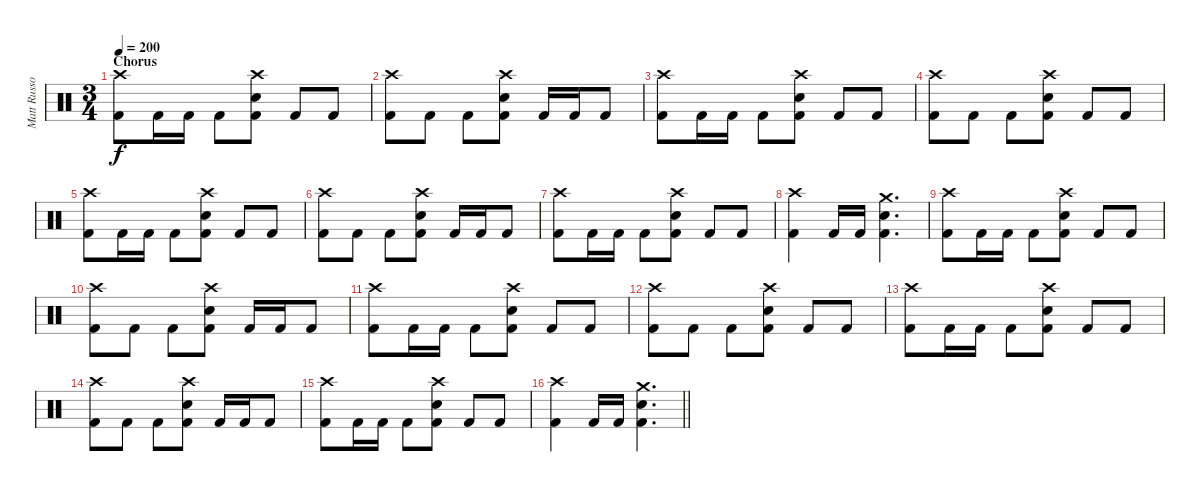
\track ("Matt Russo" "Matt Russo") {instrument percussion}
\staff {score}
\articulation defaults
\ts (3 4)
\section ("" "Chorus")
\tempo 200
\clef neutral
\ks c
("Crash high (hit)" "Kick (hit) 2").8{dy f} "Kick (hit) 2".16 "Kick (hit) 2".16 "Kick (hit) 2".8 ("Crash high (hit)" "Electric Snare (hit)" "Kick (hit) 2").8 "Kick (hit) 2".8 "Kick (hit) 2".8 |
("Crash high (hit)" "Kick (hit) 2").8 "Kick (hit) 2".8 "Kick (hit) 2".8 ("Crash high (hit)" "Electric Snare (hit)" "Kick (hit) 2").8 "Kick (hit) 2".16 "Kick (hit) 2".16 "Kick (hit) 2".8 |
("Crash high (hit)" "Kick (hit) 2").8 "Kick (hit) 2".16 "Kick (hit) 2".16 "Kick (hit) 2".8 ("Crash high (hit)" "Electric Snare (hit)" "Kick (hit) 2").8 "Kick (hit) 2".8 "Kick (hit) 2".8 |
("Crash high (hit)" "Kick (hit) 2").8 "Kick (hit) 2".8 "Kick (hit) 2".8 ("Crash high (hit)" "Electric Snare (hit)" "Kick (hit) 2").8 "Kick (hit) 2".8 "Kick (hit) 2".8 |
("Crash high (hit)" "Kick (hit) 2").8 "Kick (hit) 2".16 "Kick (hit) 2".16 "Kick (hit) 2".8 ("Crash high (hit)" "Electric Snare (hit)" "Kick (hit) 2").8 "Kick (hit) 2".8 "Kick (hit) 2".8 |
("Crash high (hit)" "Kick (hit) 2").8 "Kick (hit) 2".8 "Kick (hit) 2".8 ("Crash high (hit)" "Electric Snare (hit)" "Kick (hit) 2").8 "Kick (hit) 2".16 "Kick (hit) 2".16 "Kick (hit) 2".8 |
("Crash high (hit)" "Kick (hit) 2").8 "Kick (hit) 2".16 "Kick (hit) 2".16 "Kick (hit) 2".8 ("Crash high (hit)" "Electric Snare (hit)" "Kick (hit) 2").8 "Kick (hit) 2".8 "Kick (hit) 2".8 |
("Crash high (hit)" "Kick (hit) 2").4 "Kick (hit) 2".16 "Kick (hit) 2".16 ("Crash medium (hit)" "Electric Snare (hit)" "Kick (hit) 2").4{d} |
("Crash high (hit)" "Kick (hit) 2").8 "Kick (hit) 2".16 "Kick (hit) 2".16 "Kick (hit) 2".8 ("Crash high (hit)" "Electric Snare (hit)" "Kick (hit) 2").8 "Kick (hit) 2".8 "Kick (hit) 2".8 |
("Crash high (hit)" "Kick (hit) 2").8 "Kick (hit) 2".8 "Kick (hit) 2".8 ("Crash high (hit)" "Electric Snare (hit)" "Kick (hit) 2").8 "Kick (hit) 2".16 "Kick (hit) 2".16 "Kick (hit) 2".8 |
("Crash high (hit)" "Kick (hit) 2").8 "Kick (hit) 2".16 "Kick (hit) 2".16 "Kick (hit) 2".8 ("Crash high (hit)" "Electric Snare (hit)" "Kick (hit) 2").8 "Kick (hit) 2".8 "Kick (hit) 2".8 |
("Crash high (hit)" "Kick (hit) 2").8 "Kick (hit) 2".8 "Kick (hit) 2".8 ("Crash high (hit)" "Electric Snare (hit)" "Kick (hit) 2").8 "Kick (hit) 2".8 "Kick (hit) 2".8 |
("Crash high (hit)" "Kick (hit) 2").8 "Kick (hit) 2".16 "Kick (hit) 2".16 "Kick (hit) 2".8 ("Crash high (hit)" "Electric Snare (hit)" "Kick (hit) 2").8 "Kick (hit) 2".8 "Kick (hit) 2".8 |
("Crash high (hit)" "Kick (hit) 2").8 "Kick (hit) 2".8 "Kick (hit) 2".8 ("Crash high (hit)" "Electric Snare (hit)" "Kick (hit) 2").8 "Kick (hit) 2".16 "Kick (hit) 2".16 "Kick (hit) 2".8 |
("Crash high (hit)" "Kick (hit) 2").8 "Kick (hit) 2".16 "Kick (hit) 2".16 "Kick (hit) 2".8 ("Crash high (hit)" "Electric Snare (hit)" "Kick (hit) 2").8 "Kick (hit) 2".8 "Kick (hit) 2".8 |
\barLineRight lightlight
("Crash high (hit)" "Kick (hit) 2").4 "Kick (hit) 2".16 "Kick (hit) 2".16 ("Crash medium (hit)" "Electric Snare (hit)" "Kick (hit) 2").4{d}
